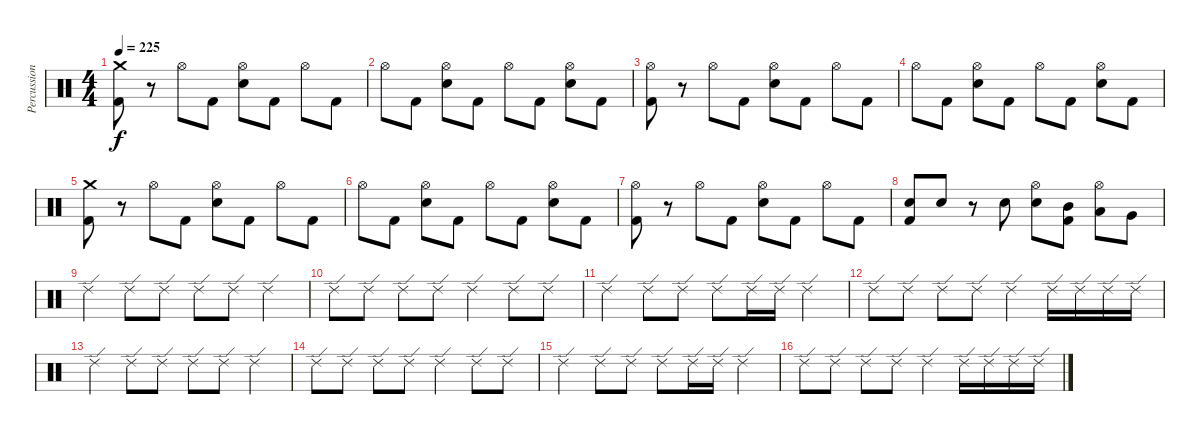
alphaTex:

\track ("Percussion" "Percussion") {instrument percussion}
\staff {score}
\articulation defaults
\ts (4 4)
\tempo 225
\clef neutral
\ks c
("Crash medium (hit)" "Kick (hit) 2").8{dy f} r.8 "Hi-Hat (open)".8 "Kick (hit) 2".8 ("Hi-Hat (open)" "Electric Snare (hit)").8 "Kick (hit) 2".8 "Hi-Hat (open)".8 "Kick (hit) 2".8 |
"Hi-Hat (open)".8 "Kick (hit) 2".8 ("Hi-Hat (open)" "Electric Snare (hit)").8 "Kick (hit) 2".8 "Hi-Hat (open)".8 "Kick (hit) 2".8 ("Hi-Hat (open)" "Electric Snare (hit)").8 "Kick (hit) 2".8 |
("Hi-Hat (open)" "Kick (hit) 2").8 r.8 "Hi-Hat (open)".8 "Kick (hit) 2".8 ("Hi-Hat (open)" "Electric Snare (hit)").8 "Kick (hit) 2".8 "Hi-Hat (open)".8 "Kick (hit) 2".8 |
"Hi-Hat (open)".8 "Kick (hit) 2".8 ("Hi-Hat (open)" "Electric Snare (hit)").8 "Kick (hit) 2".8 "Hi-Hat (open)".8 "Kick (hit) 2".8 ("Hi-Hat (open)" "Electric Snare (hit)").8 "Kick (hit) 2".8 |
("Crash medium (hit)" "Kick (hit) 2").8 r.8 "Hi-Hat (open)".8 "Kick (hit) 2".8 ("Hi-Hat (open)" "Electric Snare (hit)").8 "Kick (hit) 2".8 "Hi-Hat (open)".8 "Kick (hit) 2".8 |
"Hi-Hat (open)".8 "Kick (hit) 2".8 ("Hi-Hat (open)" "Electric Snare (hit)").8 "Kick (hit) 2".8 "Hi-Hat (open)".8 "Kick (hit) 2".8 ("Hi-Hat (open)" "Electric Snare (hit)").8 "Kick (hit) 2".8 |
("Hi-Hat (open)" "Kick (hit) 2").8 r.8 "Hi-Hat (open)".8 "Kick (hit) 2".8 ("Hi-Hat (open)" "Electric Snare (hit)").8 "Kick (hit) 2".8 "Hi-Hat (open)".8 "Kick (hit) 2".8 |
("Electric Snare (hit)" "Kick (hit) 2").8 "Electric Snare (hit)".8 r.8 "Electric Snare (hit)".8 ("Hi-Hat (open)" "Electric Snare (hit)").8 ("Mid Tom (hit)" "Kick (hit) 2").8 ("Hi-Hat (open)" "Low Tom (hit)").8 "Very Low Tom (hit)".8 |
"Ride (edge) 2".4 "Ride (edge) 2".8 "Ride (edge) 2".8 "Ride (edge) 2".8 "Ride (edge) 2".8 "Ride (edge) 2".4 |
"Ride (edge) 2".8 "Ride (edge) 2".8 "Ride (edge) 2".8 "Ride (edge) 2".8 "Ride (edge) 2".4 "Ride (edge) 2".8 "Ride (edge) 2".8 |
"Ride (edge) 2".4 "Ride (edge) 2".8 "Ride (edge) 2".8 "Ride (edge) 2".8 "Ride (edge) 2".16 "Ride (edge) 2".16 "Ride (edge) 2".4 |
"Ride (edge) 2".8 "Ride (edge) 2".8 "Ride (edge) 2".8 "Ride (edge) 2".8 "Ride (edge) 2".4 "Ride (edge) 2".16 "Ride (edge) 2".16 "Ride (edge) 2".16 "Ride (edge) 2".16 |
"Ride (edge) 2".4 "Ride (edge) 2".8 "Ride (edge) 2".8 "Ride (edge) 2".8 "Ride (edge) 2".8 "Ride (edge) 2".4 |
"Ride (edge) 2".8 "Ride (edge) 2".8 "Ride (edge) 2".8 "Ride (edge) 2".8 "Ride (edge) 2".4 "Ride (edge) 2".8 "Ride (edge) 2".8 |
"Ride (edge) 2".4 "Ride (edge) 2".8 "Ride (edge) 2".8 "Ride (edge) 2".8 "Ride (edge) 2".16 "Ride (edge) 2".16 "Ride (edge) 2".4 |
"Ride (edge) 2".8 "Ride (edge) 2".8 "Ride (edge) 2".8 "Ride (edge) 2".8 "Ride (edge) 2".4 "Ride (edge) 2".16 "Ride (edge) 2".16 "Ride (edge) 2".16 "Ride (edge) 2".16
